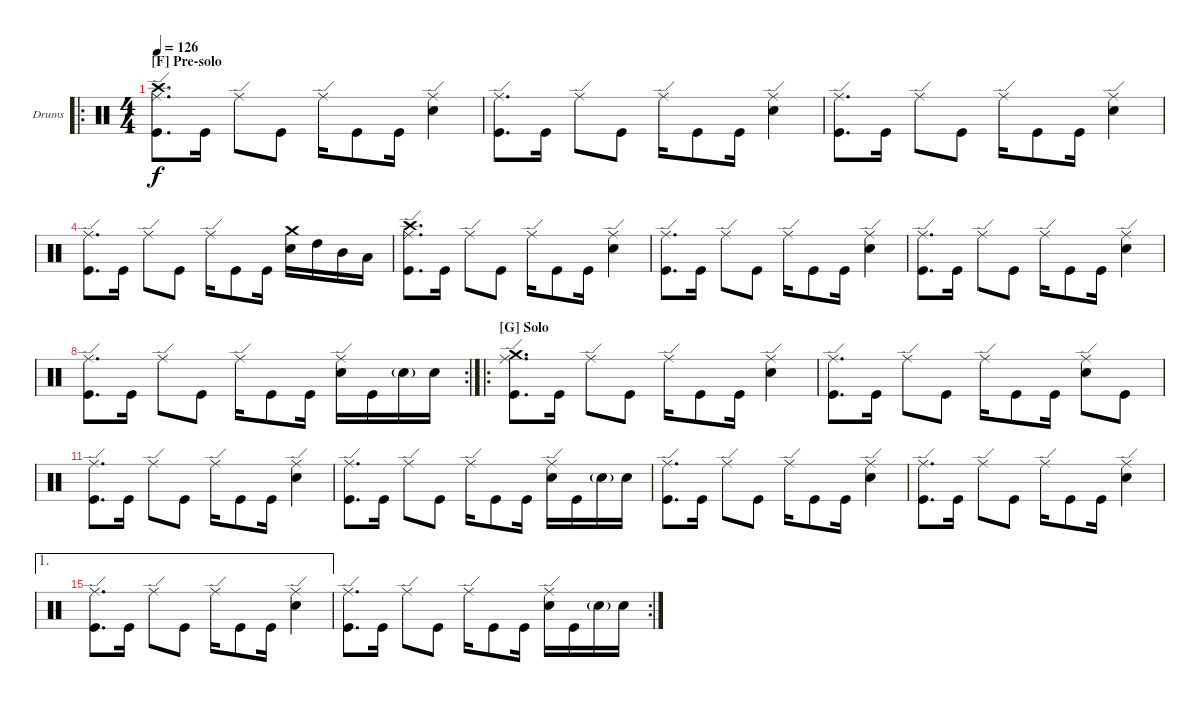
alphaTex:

\bracketExtendMode groupsimilarinstruments
\firstSystemTrackNameOrientation horizontal
\otherSystemsTrackNameOrientation horizontal
\defaultBarNumberDisplay FirstOfSystem
\track ("Drumkit" "Drums") {instrument percussion}
\staff {score}
\articulation defaults
\ro
\ts (4 4)
\section ("F" "Pre-solo")
\tempo 126
\clef neutral
\ks c
("Kick (hit)" "Ride (edge)" "Crash high (hit)").8{d dy f} "Kick (hit)".16 "Ride (edge)".8 "Kick (hit)".8 "Ride (edge)".16 "Kick (hit)".8 "Kick (hit)".16 ("Snare (hit) 2" "Ride (edge)").4 |
("Kick (hit)" "Ride (edge)").8{d} "Kick (hit)".16 "Ride (edge)".8 "Kick (hit)".8 "Ride (edge)".16 "Kick (hit)".8 "Kick (hit)".16 ("Snare (hit) 2" "Ride (edge)").4 |
("Kick (hit)" "Ride (edge)").8{d} "Kick (hit)".16 "Ride (edge)".8 "Kick (hit)".8 "Ride (edge)".16 "Kick (hit)".8 "Kick (hit)".16 ("Snare (hit) 2" "Ride (edge)").4 |
("Kick (hit)" "Ride (edge)").8{d} "Kick (hit)".16 "Ride (edge)".8 "Kick (hit)".8 "Ride (edge)".16 "Kick (hit)".8 "Kick (hit)".16 ("Snare (hit) 2" "Crash medium (hit)").16 "High Tom (hit)".16 "Mid Tom (hit)".16 "Low Tom (hit)".16 |
("Kick (hit)" "Ride (edge)" "Crash high (hit)").8{d} "Kick (hit)".16 "Ride (edge)".8 "Kick (hit)".8 "Ride (edge)".16 "Kick (hit)".8 "Kick (hit)".16 ("Snare (hit) 2" "Ride (edge)").4 |
("Kick (hit)" "Ride (edge)").8{d} "Kick (hit)".16 "Ride (edge)".8 "Kick (hit)".8 "Ride (edge)".16 "Kick (hit)".8 "Kick (hit)".16 ("Snare (hit) 2" "Ride (edge)").4 |
("Kick (hit)" "Ride (edge)").8{d} "Kick (hit)".16 "Ride (edge)".8 "Kick (hit)".8 "Ride (edge)".16 "Kick (hit)".8 "Kick (hit)".16 ("Snare (hit) 2" "Ride (edge)").4 |
\rc 2
("Kick (hit)" "Ride (edge)").8{d} "Kick (hit)".16 "Ride (edge)".8 "Kick (hit)".8 "Ride (edge)".16 "Kick (hit)".8 "Kick (hit)".16 ("Snare (hit) 2" "Ride (edge)").16 "Kick (hit)".16 "Snare (hit) 2"{g}.16 "Snare (hit) 2".16 |
\ro
\section ("G" "Solo")
("Kick (hit)" "Ride (edge)" "Crash medium (hit)").8{d} "Kick (hit)".16 "Ride (edge)".8 "Kick (hit)".8 "Ride (edge)".16 "Kick (hit)".8 "Kick (hit)".16 ("Snare (hit) 2" "Ride (edge)").4 |
("Kick (hit)" "Ride (edge)").8{d} "Kick (hit)".16 "Ride (edge)".8 "Kick (hit)".8 "Ride (edge)".16 "Kick (hit)".8 "Kick (hit)".16 ("Snare (hit) 2" "Ride (edge)").8 "Kick (hit)".8 |
("Kick (hit)" "Ride (edge)").8{d} "Kick (hit)".16 "Ride (edge)".8 "Kick (hit)".8 "Ride (edge)".16 "Kick (hit)".8 "Kick (hit)".16 ("Snare (hit) 2" "Ride (edge)").4 |
("Kick (hit)" "Ride (edge)").8{d} "Kick (hit)".16 "Ride (edge)".8 "Kick (hit)".8 "Ride (edge)".16 "Kick (hit)".8 "Kick (hit)".16 ("Snare (hit) 2" "Ride (edge)").16 "Kick (hit)".16 "Snare (hit) 2"{g}.16 "Snare (hit) 2".16 |
("Kick (hit)" "Ride (edge)").8{d} "Kick (hit)".16 "Ride (edge)".8 "Kick (hit)".8 "Ride (edge)".16 "Kick (hit)".8 "Kick (hit)".16 ("Snare (hit) 2" "Ride (edge)").4 |
("Kick (hit)" "Ride (edge)").8{d} "Kick (hit)".16 "Ride (edge)".8 "Kick (hit)".8 "Ride (edge)".16 "Kick (hit)".8 "Kick (hit)".16 ("Snare (hit) 2" "Ride (edge)").4 |
\ae 1
("Kick (hit)" "Ride (edge)").8{d} "Kick (hit)".16 "Ride (edge)".8 "Kick (hit)".8 "Ride (edge)".16 "Kick (hit)".8 "Kick (hit)".16 ("Snare (hit) 2" "Ride (edge)").4 |
\rc 2
("Kick (hit)" "Ride (edge)").8{d} "Kick (hit)".16 "Ride (edge)".8 "Kick (hit)".8 "Ride (edge)".16 "Kick (hit)".8 "Kick (hit)".16 ("Snare (hit) 2" "Ride (edge)").16 "Kick (hit)".16 "Snare (hit) 2"{g}.16 "Snare (hit) 2".16
